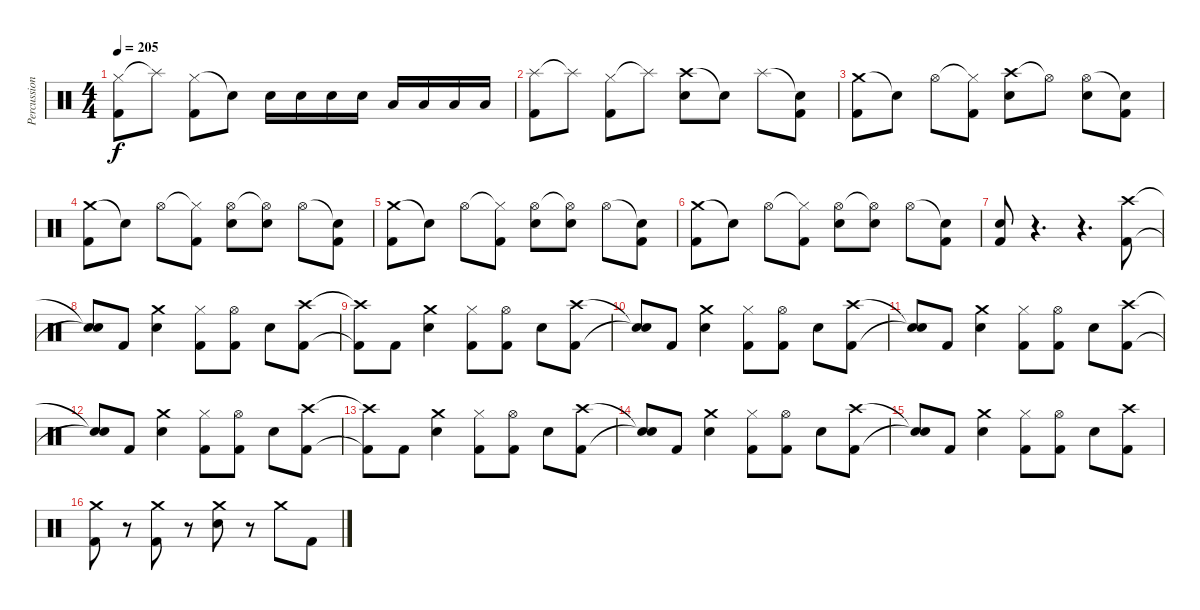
\track ("Percussion" "Percussion") {instrument percussion}
\staff {score}
\articulation defaults
\ts (4 4)
\tempo 205
\clef neutral
\ks c
("Hi-Hat (closed)" "Kick (hit) 2").8{dy f} "Splash (hit)"{t}.8 ("Hi-Hat (closed)" "Kick (hit) 2").8 "Snare (hit)"{t}.8 "Electric Snare (hit)".16 "Electric Snare (hit)".16 "Electric Snare (hit)".16 "Electric Snare (hit)".16 "Low Tom (hit)".16 "Low Tom (hit)".16 "Low Tom (hit)".16 "Low Tom (hit)".16 |
("Splash (hit)" "Kick (hit) 2").8 "Splash (hit)"{t}.8 ("Hi-Hat (closed)" "Kick (hit) 2").8 "Splash (hit)"{t}.8 ("Crash high (hit)" "Electric Snare (hit)").8 "Snare (hit)"{t}.8 "Splash (hit)".8 ("Snare (hit)"{t} "Kick (hit) 2").8 |
("Crash medium (hit)" "Kick (hit) 2").8 "Snare (hit)"{t}.8 "Hi-Hat (open)".8 ("Hi-Hat (closed)"{t} "Kick (hit) 2").8 ("Crash high (hit)" "Electric Snare (hit)").8 "Hi-Hat (open)"{t}.8 ("Hi-Hat (open)" "Electric Snare (hit)").8 ("Snare (hit)"{t} "Kick (hit) 2").8 |
("Crash medium (hit)" "Kick (hit) 2").8 "Snare (hit)"{t}.8 "Hi-Hat (open)".8 ("Hi-Hat (closed)"{t} "Kick (hit) 2").8 ("Hi-Hat (open)" "Electric Snare (hit)").8 ("Hi-Hat (open)"{t} "Electric Snare (hit)").8 "Hi-Hat (open)".8 ("Snare (hit)"{t} "Kick (hit) 2").8 |
("Crash medium (hit)" "Kick (hit) 2").8 "Snare (hit)"{t}.8 "Hi-Hat (open)".8 ("Hi-Hat (closed)"{t} "Kick (hit) 2").8 ("Hi-Hat (open)" "Electric Snare (hit)").8 ("Hi-Hat (open)"{t} "Electric Snare (hit)").8 "Hi-Hat (open)".8 ("Snare (hit)"{t} "Kick (hit) 2").8 |
("Crash medium (hit)" "Kick (hit) 2").8 "Snare (hit)"{t}.8 "Hi-Hat (open)".8 ("Hi-Hat (closed)"{t} "Kick (hit) 2").8 ("Hi-Hat (open)" "Electric Snare (hit)").8 ("Hi-Hat (open)"{t} "Electric Snare (hit)").8 "Hi-Hat (open)".8 ("Snare (hit)"{t} "Kick (hit) 2").8 |
("Electric Snare (hit)" "Kick (hit) 2").8 r.4{d} r.4{d} ("Crash high (hit)" "Kick (hit) 2").8 |
("Snare (hit)"{t} "Snare (hit)"{t}).8 "Kick (hit) 2".8 ("Crash medium (hit)" "Electric Snare (hit)").4 ("Hi-Hat (closed)" "Kick (hit) 2").8 ("Hi-Hat (open)" "Kick (hit) 2").8 "Electric Snare (hit)".8 ("Crash high (hit)" "Kick (hit) 2").8 |
("Crash high (hit)"{t} "Kick (hit) 2"{t}).8 "Kick (hit) 2".8 ("Crash medium (hit)" "Electric Snare (hit)").4 ("Hi-Hat (closed)" "Kick (hit) 2").8 ("Hi-Hat (open)" "Kick (hit) 2").8 "Electric Snare (hit)".8 ("Crash high (hit)" "Kick (hit) 2").8 |
("Snare (hit)"{t} "Snare (hit)"{t}).8 "Kick (hit) 2".8 ("Crash medium (hit)" "Electric Snare (hit)").4 ("Hi-Hat (closed)" "Kick (hit) 2").8 ("Hi-Hat (open)" "Kick (hit) 2").8 "Electric Snare (hit)".8 ("Crash high (hit)" "Kick (hit) 2").8 |
("Snare (hit)"{t} "Snare (hit)"{t}).8 "Kick (hit) 2".8 ("Crash medium (hit)" "Electric Snare (hit)").4 ("Hi-Hat (closed)" "Kick (hit) 2").8 ("Hi-Hat (open)" "Kick (hit) 2").8 "Electric Snare (hit)".8 ("Crash high (hit)" "Kick (hit) 2").8 |
("Snare (hit)"{t} "Snare (hit)"{t}).8 "Kick (hit) 2".8 ("Crash medium (hit)" "Electric Snare (hit)").4 ("Hi-Hat (closed)" "Kick (hit) 2").8 ("Hi-Hat (open)" "Kick (hit) 2").8 "Electric Snare (hit)".8 ("Crash high (hit)" "Kick (hit) 2").8 |
("Crash high (hit)"{t} "Kick (hit) 2"{t}).8 "Kick (hit) 2".8 ("Crash medium (hit)" "Electric Snare (hit)").4 ("Hi-Hat (closed)" "Kick (hit) 2").8 ("Hi-Hat (open)" "Kick (hit) 2").8 "Electric Snare (hit)".8 ("Crash high (hit)" "Kick (hit) 2").8 |
("Snare (hit)"{t} "Snare (hit)"{t}).8 "Kick (hit) 2".8 ("Crash medium (hit)" "Electric Snare (hit)").4 ("Hi-Hat (closed)" "Kick (hit) 2").8 ("Hi-Hat (open)" "Kick (hit) 2").8 "Electric Snare (hit)".8 ("Crash high (hit)" "Kick (hit) 2").8 |
("Snare (hit)"{t} "Snare (hit)"{t}).8 "Kick (hit) 2".8 ("Crash medium (hit)" "Electric Snare (hit)").4 ("Hi-Hat (closed)" "Kick (hit) 2").8 ("Hi-Hat (open)" "Kick (hit) 2").8 "Electric Snare (hit)".8 ("Crash high (hit)" "Kick (hit) 2").8 |
("Crash medium (hit)" "Kick (hit) 2").8 r.8 ("Crash medium (hit)" "Kick (hit) 2").8 r.8 ("Crash medium (hit)" "Electric Snare (hit)").8 r.8 "Crash medium (hit)".8 "Kick (hit) 2".8
